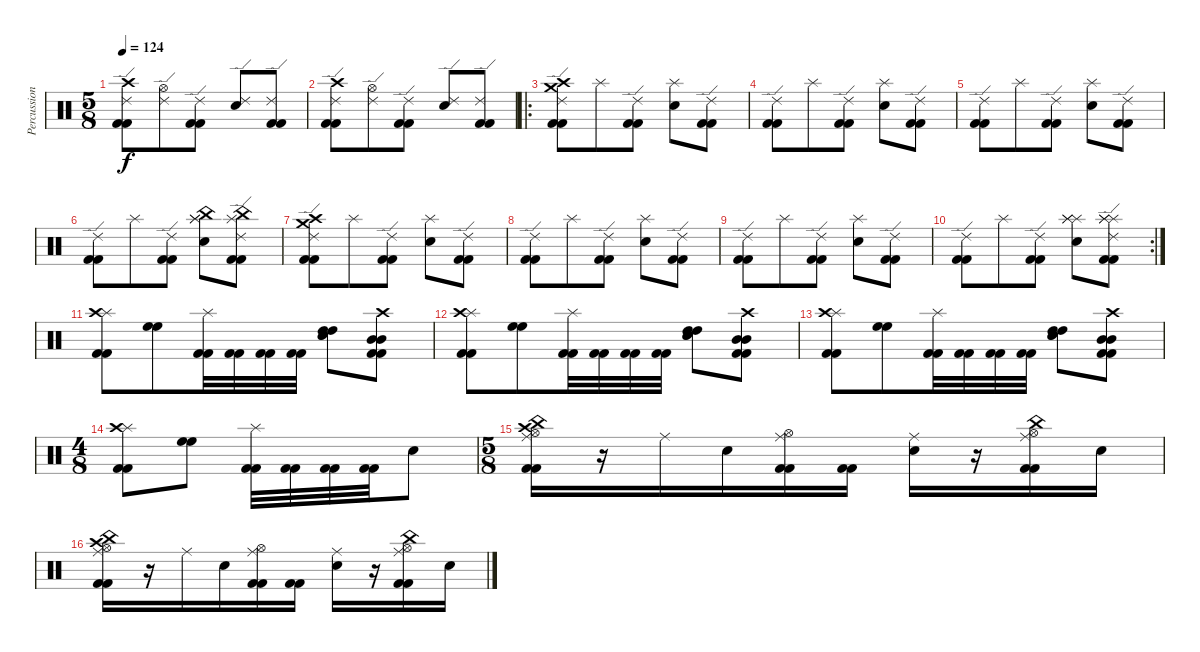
\track ("Percussioni" "Percussion") {instrument percussion}
\staff {score}
\articulation defaults
\ts (5 8)
\tempo 124
\clef neutral
\ks c
("Crash high (hit)" "Ride (edge) 2" "Kick (hit) 2" "Kick (hit) 2").8{dy f} ("Hi-Hat (open)" "Ride (edge) 2").8 ("Ride (edge) 2" "Kick (hit) 2" "Kick (hit) 2").8 ("Snare (hit) 2" "Ride (edge) 2").8 ("Ride (edge) 2" "Kick (hit) 2" "Kick (hit) 2").8 |
("Crash high (hit)" "Ride (edge) 2" "Kick (hit) 2" "Kick (hit) 2").8 ("Hi-Hat (open)" "Ride (edge) 2").8 ("Ride (edge) 2" "Kick (hit) 2" "Kick (hit) 2").8 ("Snare (hit) 2" "Ride (edge) 2").8 ("Ride (edge) 2" "Kick (hit) 2" "Kick (hit) 2").8 |
\ro
("Crash high (hit)" "Ride (edge) 2" "Crash medium (hit)" "Kick (hit) 2" "Kick (hit) 2").8 "Splash (hit)".8 ("Ride (edge) 2" "Kick (hit) 2" "Kick (hit) 2").8 ("Splash (hit)" "Snare (hit) 2").8 ("Ride (edge) 2" "Kick (hit) 2" "Kick (hit) 2").8 |
("Ride (edge) 2" "Kick (hit) 2" "Kick (hit) 2").8 "Splash (hit)".8 ("Ride (edge) 2" "Kick (hit) 2" "Kick (hit) 2").8 ("Splash (hit)" "Snare (hit) 2").8 ("Ride (edge) 2" "Kick (hit) 2" "Kick (hit) 2").8 |
("Ride (edge) 2" "Kick (hit) 2" "Kick (hit) 2").8 "Splash (hit)".8 ("Ride (edge) 2" "Kick (hit) 2" "Kick (hit) 2").8 ("Splash (hit)" "Snare (hit) 2").8 ("Ride (edge) 2" "Kick (hit) 2" "Kick (hit) 2").8 |
("Ride (edge) 2" "Kick (hit) 2" "Kick (hit) 2").8 "Splash (hit)".8 ("Ride (edge) 2" "Kick (hit) 2" "Kick (hit) 2").8 ("China (hit)" "Splash (hit)" "Snare (hit) 2" "Splash (hit)").8 ("China (hit)" "Ride (edge) 2" "Splash (hit)" "Kick (hit) 2" "Kick (hit) 2").8 |
("Crash high (hit)" "Ride (edge) 2" "Crash medium (hit)" "Kick (hit) 2" "Kick (hit) 2").8 "Splash (hit)".8 ("Ride (edge) 2" "Kick (hit) 2" "Kick (hit) 2").8 ("Splash (hit)" "Snare (hit) 2").8 ("Ride (edge) 2" "Kick (hit) 2" "Kick (hit) 2").8 |
("Ride (edge) 2" "Kick (hit) 2" "Kick (hit) 2").8 "Splash (hit)".8 ("Ride (edge) 2" "Kick (hit) 2" "Kick (hit) 2").8 ("Splash (hit)" "Snare (hit) 2").8 ("Ride (edge) 2" "Kick (hit) 2" "Kick (hit) 2").8 |
("Ride (edge) 2" "Kick (hit) 2" "Kick (hit) 2").8 "Splash (hit)".8 ("Ride (edge) 2" "Kick (hit) 2" "Kick (hit) 2").8 ("Splash (hit)" "Snare (hit) 2").8 ("Ride (edge) 2" "Kick (hit) 2" "Kick (hit) 2").8 |
\rc 2
("Ride (edge) 2" "Kick (hit) 2" "Kick (hit) 2").8 "Splash (hit)".8 ("Ride (edge) 2" "Kick (hit) 2" "Kick (hit) 2").8 ("Splash (hit)" "Splash (hit)" "Snare (hit) 2" "Splash (hit)").8 ("Splash (hit)" "Ride (edge) 2" "Splash (hit)" "Splash (hit)" "Kick (hit) 2" "Kick (hit) 2").8 |
("Splash (hit)" "Crash high (hit)" "Kick (hit) 2" "Kick (hit) 2").8 ("High Floor Tom (hit)" "High Floor Tom (hit)").8 ("Splash (hit)" "Kick (hit) 2" "Kick (hit) 2").32 ("Kick (hit) 2" "Kick (hit) 2").32 ("Kick (hit) 2" "Kick (hit) 2").32 ("Kick (hit) 2" "Kick (hit) 2").32 ("High Tom (hit)" "High Tom (hit)" "Snare (hit) 2" "Snare (hit) 2").8 ("Mid Tom (hit)" "Mid Tom (hit)" "Crash high (hit)" "Kick (hit) 2" "Kick (hit) 2").8 |
("Splash (hit)" "Crash high (hit)" "Kick (hit) 2" "Kick (hit) 2").8 ("High Floor Tom (hit)" "High Floor Tom (hit)").8 ("Splash (hit)" "Kick (hit) 2" "Kick (hit) 2").32 ("Kick (hit) 2" "Kick (hit) 2").32 ("Kick (hit) 2" "Kick (hit) 2").32 ("Kick (hit) 2" "Kick (hit) 2").32 ("High Tom (hit)" "High Tom (hit)" "Snare (hit) 2" "Snare (hit) 2").8 ("Mid Tom (hit)" "Mid Tom (hit)" "Crash high (hit)" "Kick (hit) 2" "Kick (hit) 2").8 |
("Splash (hit)" "Crash high (hit)" "Kick (hit) 2" "Kick (hit) 2").8 ("High Floor Tom (hit)" "High Floor Tom (hit)").8 ("Splash (hit)" "Kick (hit) 2" "Kick (hit) 2").32 ("Kick (hit) 2" "Kick (hit) 2").32 ("Kick (hit) 2" "Kick (hit) 2").32 ("Kick (hit) 2" "Kick (hit) 2").32 ("High Tom (hit)" "High Tom (hit)" "Snare (hit) 2" "Snare (hit) 2").8 ("Mid Tom (hit)" "Mid Tom (hit)" "Crash high (hit)" "Kick (hit) 2" "Kick (hit) 2").8 |
\ts (4 8)
("Splash (hit)" "Crash high (hit)" "Kick (hit) 2" "Kick (hit) 2").8 ("High Floor Tom (hit)" "High Floor Tom (hit)").8 ("Splash (hit)" "Kick (hit) 2" "Kick (hit) 2").32 ("Kick (hit) 2" "Kick (hit) 2").32 ("Kick (hit) 2" "Kick (hit) 2").32 ("Kick (hit) 2" "Kick (hit) 2").32 "Snare (hit) 2".8 |
\ts (5 8)
("Crash high (hit)" "Ride (middle)" "Hi-Hat (open)" "China (hit)" "Kick (hit) 2" "Kick (hit) 2").16 r.16 "Ride (middle)".16 "Snare (hit) 2".16 ("Ride (middle)" "Hi-Hat (open)" "Kick (hit) 2" "Kick (hit) 2").16 ("Kick (hit) 2" "Kick (hit) 2").16 ("Ride (middle)" "Snare (hit) 2").16 r.16 ("Ride (middle)" "Hi-Hat (open)" "China (hit)" "Kick (hit) 2" "Kick (hit) 2").16 "Snare (hit) 2".16 |
("Crash high (hit)" "Ride (middle)" "Hi-Hat (open)" "China (hit)" "Kick (hit) 2" "Kick (hit) 2").16 r.16 "Ride (middle)".16 "Snare (hit) 2".16 ("Ride (middle)" "Hi-Hat (open)" "Kick (hit) 2" "Kick (hit) 2").16 ("Kick (hit) 2" "Kick (hit) 2").16 ("Ride (middle)" "Snare (hit) 2").16 r.16 ("Ride (middle)" "Hi-Hat (open)" "China (hit)" "Kick (hit) 2" "Kick (hit) 2").16 "Snare (hit) 2".16
